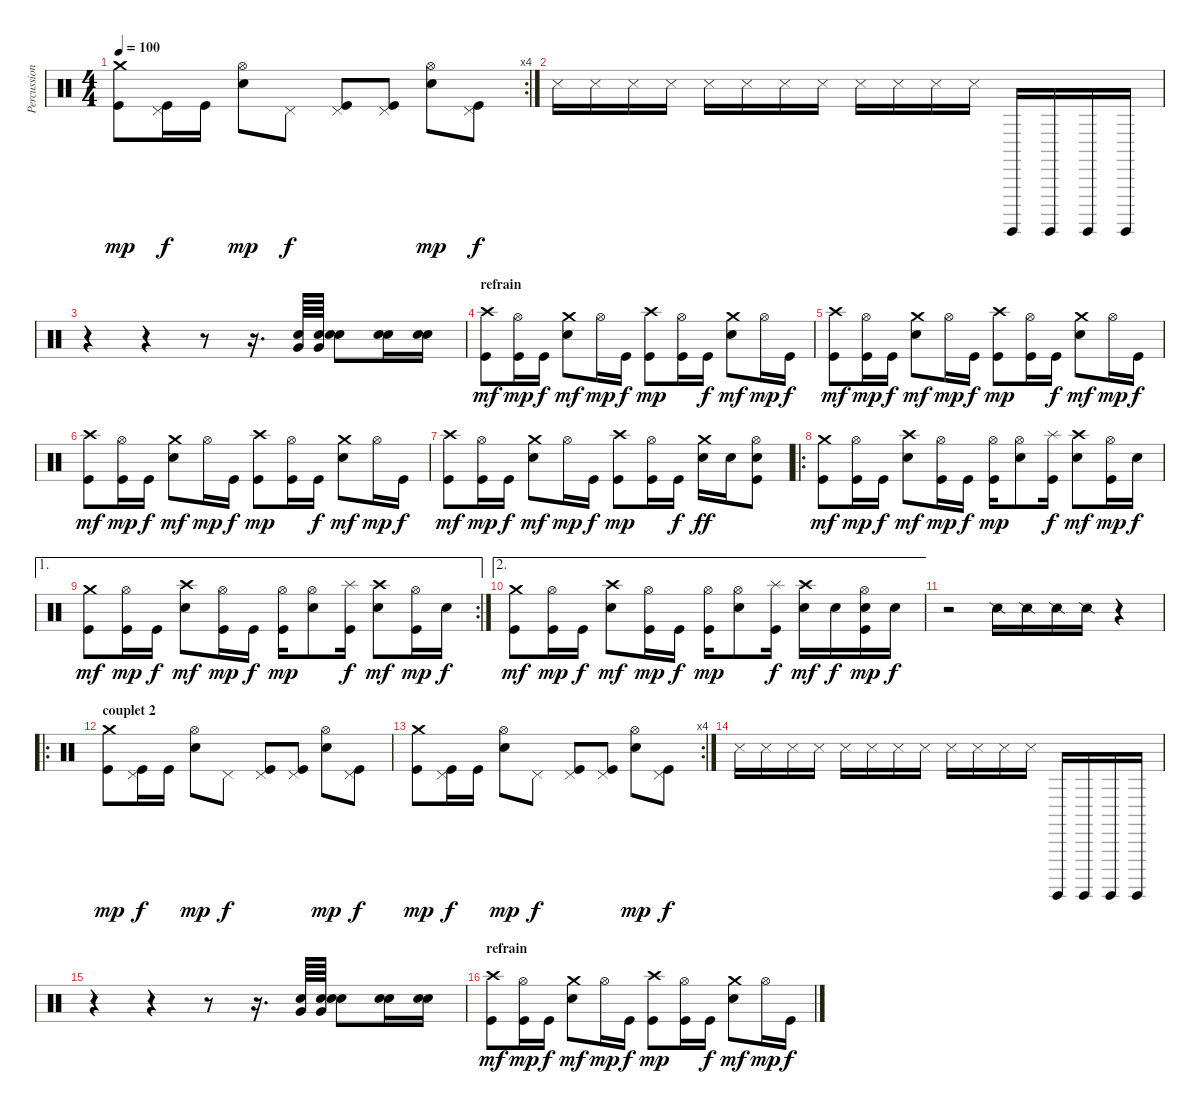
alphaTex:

\track ("Percussions" "Percussion") {instrument percussion}
\staff {score}
\articulation defaults
\rc 4
\ts (4 4)
\tempo 100
\clef neutral
\ks c
("Crash medium (hit)" "Kick (hit)").8{dy mp} ("Pedal Hi-Hat (hit)" "Kick (hit)").16{dy f} "Kick (hit)".16 ("Hi-Hat (open)" "Electric Snare (hit)").8{dy mp} "Pedal Hi-Hat (hit)".8{dy f} ("Pedal Hi-Hat (hit)" "Kick (hit)").8 ("Pedal Hi-Hat (hit)" "Kick (hit)").8 ("Hi-Hat (open)" "Electric Snare (hit)").8{dy mp} ("Pedal Hi-Hat (hit)" "Kick (hit)").8{dy f} |
"Metronome (hit)".16{volume 9} "Metronome (hit)".16 "Metronome (hit)".16 "Metronome (hit)".16 "Metronome (hit)".16 "Metronome (hit)".16 "Metronome (hit)".16 "Metronome (hit)".16 "Metronome (hit)".16 "Metronome (hit)".16 "Metronome (hit)".16 "Metronome (hit)".16 "Surdo (hit)".16 "Surdo (hit)".16 "Surdo (hit)".16 "Surdo (hit)".16 |
r.4 r.4 r.8 r.16{d volume 15} ("Very Low Tom (hit)" "Snare (hit) 2").64 ("Very Low Tom (hit)" "Snare (hit) 2").64 ("Electric Snare (hit)" "Snare (hit) 2").8 ("Electric Snare (hit)" "Snare (hit) 2").16 ("Electric Snare (hit)" "Snare (hit) 2").16 |
\section ("" "refrain")
("Crash high (hit)" "Kick (hit)").8{dy mf} ("Hi-Hat (open)" "Kick (hit)").16{dy mp} "Kick (hit)".16{dy f} ("Crash medium (hit)" "Electric Snare (hit)").8{dy mf} "Hi-Hat (open)".16{dy mp} "Kick (hit)".16{dy f} ("Crash high (hit)" "Kick (hit)").8{dy mp} ("Hi-Hat (open)" "Kick (hit)").16 "Kick (hit)".16{dy f} ("Crash medium (hit)" "Electric Snare (hit)").8{dy mf} "Hi-Hat (open)".16{dy mp} "Kick (hit)".16{dy f} |
("Crash high (hit)" "Kick (hit)").8{dy mf} ("Hi-Hat (open)" "Kick (hit)").16{dy mp} "Kick (hit)".16{dy f} ("Crash medium (hit)" "Electric Snare (hit)").8{dy mf} "Hi-Hat (open)".16{dy mp} "Kick (hit)".16{dy f} ("Crash high (hit)" "Kick (hit)").8{dy mp} ("Hi-Hat (open)" "Kick (hit)").16 "Kick (hit)".16{dy f} ("Crash medium (hit)" "Electric Snare (hit)").8{dy mf} "Hi-Hat (open)".16{dy mp} "Kick (hit)".16{dy f} |
("Crash high (hit)" "Kick (hit)").8{dy mf} ("Hi-Hat (open)" "Kick (hit)").16{dy mp} "Kick (hit)".16{dy f} ("Crash medium (hit)" "Electric Snare (hit)").8{dy mf} "Hi-Hat (open)".16{dy mp} "Kick (hit)".16{dy f} ("Crash high (hit)" "Kick (hit)").8{dy mp} ("Hi-Hat (open)" "Kick (hit)").16 "Kick (hit)".16{dy f} ("Crash medium (hit)" "Electric Snare (hit)").8{dy mf} "Hi-Hat (open)".16{dy mp} "Kick (hit)".16{dy f} |
("Crash high (hit)" "Kick (hit)").8{dy mf} ("Hi-Hat (open)" "Kick (hit)").16{dy mp} "Kick (hit)".16{dy f} ("Crash medium (hit)" "Electric Snare (hit)").8{dy mf} "Hi-Hat (open)".16{dy mp} "Kick (hit)".16{dy f} ("Crash high (hit)" "Kick (hit)").8{dy mp} ("Hi-Hat (open)" "Kick (hit)").16 "Kick (hit)".16{dy f} ("Crash medium (hit)" "Electric Snare (hit)").16{dy ff} "Electric Snare (hit)".16 ("Hi-Hat (open)" "Electric Snare (hit)" "Kick (hit)").8 |
\ro
("Crash medium (hit)" "Kick (hit)").8{dy mf} ("Hi-Hat (open)" "Kick (hit)").16{dy mp} "Kick (hit)".16{dy f} ("Crash high (hit)" "Electric Snare (hit)").8{dy mf} ("Hi-Hat (open)" "Kick (hit)").16{dy mp} "Kick (hit)".16{dy f} ("Hi-Hat (open)" "Kick (hit)").16{dy mp} ("Hi-Hat (open)" "Electric Snare (hit)").8 ("Splash (hit)" "Kick (hit)").16{dy f} ("Crash high (hit)" "Electric Snare (hit)").8{dy mf} ("Hi-Hat (open)" "Kick (hit)").16{dy mp} "Electric Snare (hit)".16{dy f} |
\ae 1
\rc 2
("Crash medium (hit)" "Kick (hit)").8{dy mf} ("Hi-Hat (open)" "Kick (hit)").16{dy mp} "Kick (hit)".16{dy f} ("Crash high (hit)" "Electric Snare (hit)").8{dy mf} ("Hi-Hat (open)" "Kick (hit)").16{dy mp} "Kick (hit)".16{dy f} ("Hi-Hat (open)" "Kick (hit)").16{dy mp} ("Hi-Hat (open)" "Electric Snare (hit)").8 ("Splash (hit)" "Kick (hit)").16{dy f} ("Crash high (hit)" "Electric Snare (hit)").8{dy mf} ("Hi-Hat (open)" "Kick (hit)").16{dy mp} "Electric Snare (hit)".16{dy f} |
\ae 2
("Crash medium (hit)" "Kick (hit)").8{dy mf} ("Hi-Hat (open)" "Kick (hit)").16{dy mp} "Kick (hit)".16{dy f} ("Crash high (hit)" "Electric Snare (hit)").8{dy mf} ("Hi-Hat (open)" "Kick (hit)").16{dy mp} "Kick (hit)".16{dy f} ("Hi-Hat (open)" "Kick (hit)").16{dy mp} ("Hi-Hat (open)" "Electric Snare (hit)").8 ("Splash (hit)" "Kick (hit)").16{dy f} ("Crash high (hit)" "Electric Snare (hit)").16{dy mf} "Electric Snare (hit)".16{dy f} ("Hi-Hat (open)" "Electric Snare (hit)" "Kick (hit)").16{dy mp} "Electric Snare (hit)".16{dy f} |
r.2 "Snare (side stick) 2".16 "Snare (side stick) 2".16 "Snare (side stick) 2".16 "Snare (side stick) 2".16 r.4 |
\ro
\section ("" "couplet 2")
("Crash medium (hit)" "Kick (hit)").8{dy mp} ("Pedal Hi-Hat (hit)" "Kick (hit)").16{dy f} "Kick (hit)".16 ("Hi-Hat (open)" "Electric Snare (hit)").8{dy mp} "Pedal Hi-Hat (hit)".8{dy f} ("Pedal Hi-Hat (hit)" "Kick (hit)").8 ("Pedal Hi-Hat (hit)" "Kick (hit)").8 ("Hi-Hat (open)" "Electric Snare (hit)").8{dy mp} ("Pedal Hi-Hat (hit)" "Kick (hit)").8{dy f} |
\rc 4
("Crash medium (hit)" "Kick (hit)").8{dy mp} ("Pedal Hi-Hat (hit)" "Kick (hit)").16{dy f} "Kick (hit)".16 ("Hi-Hat (open)" "Electric Snare (hit)").8{dy mp} "Pedal Hi-Hat (hit)".8{dy f} ("Pedal Hi-Hat (hit)" "Kick (hit)").8 ("Pedal Hi-Hat (hit)" "Kick (hit)").8 ("Hi-Hat (open)" "Electric Snare (hit)").8{dy mp} ("Pedal Hi-Hat (hit)" "Kick (hit)").8{dy f} |
"Metronome (hit)".16 "Metronome (hit)".16 "Metronome (hit)".16 "Metronome (hit)".16 "Metronome (hit)".16 "Metronome (hit)".16 "Metronome (hit)".16 "Metronome (hit)".16 "Metronome (hit)".16 "Metronome (hit)".16 "Metronome (hit)".16 "Metronome (hit)".16 "Surdo (hit)".16 "Surdo (hit)".16 "Surdo (hit)".16 "Surdo (hit)".16 |
r.4 r.4 r.8 r.16{d volume 15} ("Very Low Tom (hit)" "Snare (hit) 2").64 ("Very Low Tom (hit)" "Snare (hit) 2").64 ("Electric Snare (hit)" "Snare (hit) 2").8 ("Electric Snare (hit)" "Snare (hit) 2").16 ("Electric Snare (hit)" "Snare (hit) 2").16 |
\section ("" "refrain")
("Crash high (hit)" "Kick (hit)").8{dy mf} ("Hi-Hat (open)" "Kick (hit)").16{dy mp} "Kick (hit)".16{dy f} ("Crash medium (hit)" "Electric Snare (hit)").8{dy mf} "Hi-Hat (open)".16{dy mp} "Kick (hit)".16{dy f} ("Crash high (hit)" "Kick (hit)").8{dy mp} ("Hi-Hat (open)" "Kick (hit)").16 "Kick (hit)".16{dy f} ("Crash medium (hit)" "Electric Snare (hit)").8{dy mf} "Hi-Hat (open)".16{dy mp} "Kick (hit)".16{dy f}
